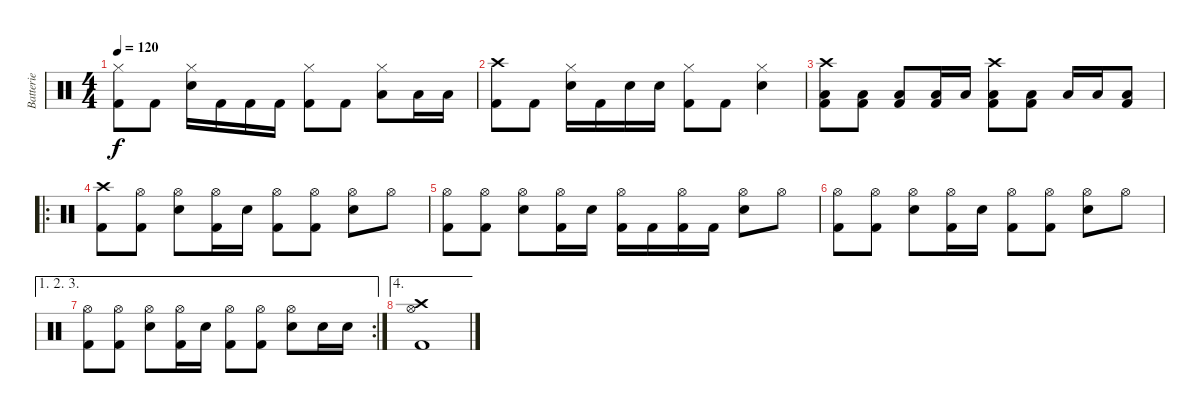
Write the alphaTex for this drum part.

\track ("Batterie" "Batterie") {instrument percussion}
\staff {score}
\articulation defaults
\ts (4 4)
\tempo 120
\clef neutral
\ks c
("Hi-Hat (closed)" "Kick (hit) 2").8{dy f} "Kick (hit) 2".8 ("Hi-Hat (closed)" "Snare (hit) 2").16 "Kick (hit) 2".16 "Kick (hit) 2".16 "Kick (hit) 2".16 ("Hi-Hat (closed)" "Kick (hit) 2").8 "Kick (hit) 2".8 ("Hi-Hat (closed)" "Low Tom (hit)").8 "Low Tom (hit)".16 "Low Tom (hit)".16 |
("Crash high (hit)" "Kick (hit) 2").8 "Kick (hit) 2".8 ("Hi-Hat (closed)" "Snare (hit) 2").16 "Kick (hit) 2".16 "Snare (hit) 2".16 "Snare (hit) 2".16 ("Hi-Hat (closed)" "Kick (hit) 2").8 "Kick (hit) 2".8 ("Hi-Hat (closed)" "Snare (hit) 2").4 |
("Crash high (hit)" "Low Tom (hit)" "Kick (hit) 2").8 ("Low Tom (hit)" "Kick (hit) 2").8 ("Low Tom (hit)" "Kick (hit) 2").8 ("Low Tom (hit)" "Kick (hit) 2").16 "Low Tom (hit)".16 ("Crash high (hit)" "Low Tom (hit)" "Kick (hit) 2").8 ("Low Tom (hit)" "Kick (hit) 2").8 "Low Tom (hit)".16 "Low Tom (hit)".16 ("Low Tom (hit)" "Kick (hit) 2").8 |
\ro
("Crash high (hit)" "Kick (hit) 2").8 ("Hi-Hat (open)" "Kick (hit) 2").8 ("Hi-Hat (open)" "Snare (hit) 2").8 ("Hi-Hat (open)" "Kick (hit) 2").16 "Snare (hit) 2".16 ("Hi-Hat (open)" "Kick (hit) 2").8 ("Hi-Hat (open)" "Kick (hit) 2").8 ("Hi-Hat (open)" "Snare (hit) 2").8 "Hi-Hat (open)".8 |
("Hi-Hat (open)" "Kick (hit) 2").8 ("Hi-Hat (open)" "Kick (hit) 2").8 ("Hi-Hat (open)" "Snare (hit) 2").8 ("Hi-Hat (open)" "Kick (hit) 2").16 "Snare (hit) 2".16 ("Hi-Hat (open)" "Kick (hit) 2").16 "Kick (hit) 2".16 ("Hi-Hat (open)" "Kick (hit) 2").16 "Kick (hit) 2".16 ("Hi-Hat (open)" "Snare (hit) 2").8 "Hi-Hat (open)".8 |
("Hi-Hat (open)" "Kick (hit) 2").8 ("Hi-Hat (open)" "Kick (hit) 2").8 ("Hi-Hat (open)" "Snare (hit) 2").8 ("Hi-Hat (open)" "Kick (hit) 2").16 "Snare (hit) 2".16 ("Hi-Hat (open)" "Kick (hit) 2").8 ("Hi-Hat (open)" "Kick (hit) 2").8 ("Hi-Hat (open)" "Snare (hit) 2").8 "Hi-Hat (open)".8 |
\ae (1 2 3)
\rc 2
("Hi-Hat (open)" "Kick (hit) 2").8 ("Hi-Hat (open)" "Kick (hit) 2").8 ("Hi-Hat (open)" "Snare (hit) 2").8 ("Hi-Hat (open)" "Kick (hit) 2").16 "Snare (hit) 2".16 ("Hi-Hat (open)" "Kick (hit) 2").8 ("Hi-Hat (open)" "Kick (hit) 2").8 ("Hi-Hat (open)" "Snare (hit) 2").8 "Snare (hit) 2".16 "Snare (hit) 2".16 |
\ae 4
("Crash high (hit)" "Hi-Hat (open)" "Kick (hit) 2").1
